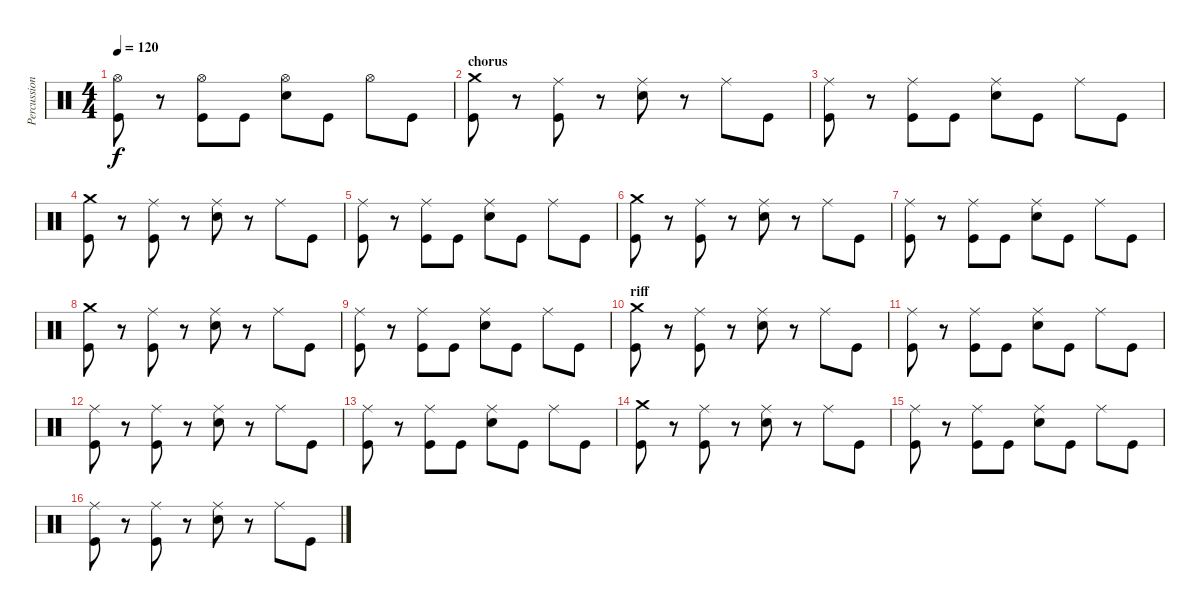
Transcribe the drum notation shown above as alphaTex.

\track ("Percussion" "Percussion") {instrument percussion}
\staff {score}
\articulation defaults
\ts (4 4)
\tempo 120
\clef neutral
\ks c
("Hi-Hat (open)" "Kick (hit)").8{dy f} r.8 ("Hi-Hat (open)" "Kick (hit)").8 "Kick (hit)".8 ("Hi-Hat (open)" "Electric Snare (hit)").8 "Kick (hit)".8 "Hi-Hat (open)".8 "Kick (hit)".8 |
\section ("" "chorus")
("Crash medium (hit)" "Kick (hit)").8 r.8 ("Ride (middle)" "Kick (hit)").8 r.8 ("Ride (middle)" "Electric Snare (hit)").8 r.8 "Ride (middle)".8 "Kick (hit)".8 |
("Ride (middle)" "Kick (hit)").8 r.8 ("Ride (middle)" "Kick (hit)").8 "Kick (hit)".8 ("Ride (middle)" "Electric Snare (hit)").8 "Kick (hit)".8 "Ride (middle)".8 "Kick (hit)".8 |
("Crash medium (hit)" "Kick (hit)").8 r.8 ("Ride (middle)" "Kick (hit)").8 r.8 ("Ride (middle)" "Electric Snare (hit)").8 r.8 "Ride (middle)".8 "Kick (hit)".8 |
("Ride (middle)" "Kick (hit)").8 r.8 ("Ride (middle)" "Kick (hit)").8 "Kick (hit)".8 ("Ride (middle)" "Electric Snare (hit)").8 "Kick (hit)".8 "Ride (middle)".8 "Kick (hit)".8 |
("Crash medium (hit)" "Kick (hit)").8 r.8 ("Ride (middle)" "Kick (hit)").8 r.8 ("Ride (middle)" "Electric Snare (hit)").8 r.8 "Ride (middle)".8 "Kick (hit)".8 |
("Ride (middle)" "Kick (hit)").8 r.8 ("Ride (middle)" "Kick (hit)").8 "Kick (hit)".8 ("Ride (middle)" "Electric Snare (hit)").8 "Kick (hit)".8 "Ride (middle)".8 "Kick (hit)".8 |
("Crash medium (hit)" "Kick (hit)").8 r.8 ("Ride (middle)" "Kick (hit)").8 r.8 ("Ride (middle)" "Electric Snare (hit)").8 r.8 "Ride (middle)".8 "Kick (hit)".8 |
("Ride (middle)" "Kick (hit)").8 r.8 ("Ride (middle)" "Kick (hit)").8 "Kick (hit)".8 ("Ride (middle)" "Electric Snare (hit)").8 "Kick (hit)".8 "Ride (middle)".8 "Kick (hit)".8 |
\section ("" "riff")
("Crash medium (hit)" "Kick (hit)").8 r.8 ("Ride (middle)" "Kick (hit)").8 r.8 ("Ride (middle)" "Electric Snare (hit)").8 r.8 "Ride (middle)".8 "Kick (hit)".8 |
("Ride (middle)" "Kick (hit)").8 r.8 ("Ride (middle)" "Kick (hit)").8 "Kick (hit)".8 ("Ride (middle)" "Electric Snare (hit)").8 "Kick (hit)".8 "Ride (middle)".8 "Kick (hit)".8 |
("Ride (middle)" "Kick (hit)").8 r.8 ("Ride (middle)" "Kick (hit)").8 r.8 ("Ride (middle)" "Electric Snare (hit)").8 r.8 "Ride (middle)".8 "Kick (hit)".8 |
("Ride (middle)" "Kick (hit)").8 r.8 ("Ride (middle)" "Kick (hit)").8 "Kick (hit)".8 ("Ride (middle)" "Electric Snare (hit)").8 "Kick (hit)".8 "Ride (middle)".8 "Kick (hit)".8 |
("Crash medium (hit)" "Kick (hit)").8 r.8 ("Ride (middle)" "Kick (hit)").8 r.8 ("Ride (middle)" "Electric Snare (hit)").8 r.8 "Ride (middle)".8 "Kick (hit)".8 |
("Ride (middle)" "Kick (hit)").8 r.8 ("Ride (middle)" "Kick (hit)").8 "Kick (hit)".8 ("Ride (middle)" "Electric Snare (hit)").8 "Kick (hit)".8 "Ride (middle)".8 "Kick (hit)".8 |
("Ride (middle)" "Kick (hit)").8 r.8 ("Ride (middle)" "Kick (hit)").8 r.8 ("Ride (middle)" "Electric Snare (hit)").8 r.8 "Ride (middle)".8 "Kick (hit)".8
